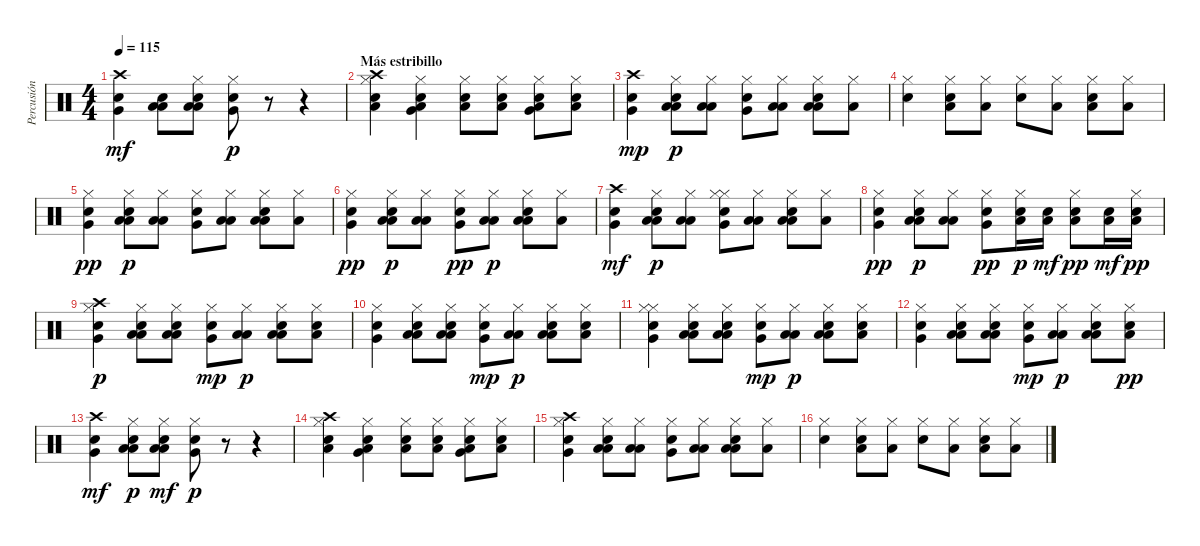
\track ("Percusión" "Percusión") {instrument percussion}
\staff {score}
\articulation defaults
\ts (4 4)
\tempo 115
\clef neutral
\ks c
("Snare (hit) 2" "Very Low Tom (hit)" "Crash high (hit)").4{dy mf} ("Low Floor Tom (hit)" "Low Floor Tom (hit)" "Snare (hit) 2").8 ("Low Floor Tom (hit)" "Low Floor Tom (hit)" "Hi-Hat (closed)" "Snare (hit) 2").8 ("Snare (hit) 2" "Very Low Tom (hit)" "Hi-Hat (closed)").8{dy p} r.8 r.4 |
\section ("" "Más estribillo")
("Snare (hit) 2" "Low Floor Tom (hit)" "Crash high (hit)" "Hi-Hat (closed)").4 ("Snare (hit) 2" "Low Floor Tom (hit)" "Very Low Tom (hit)" "Hi-Hat (closed)").4 ("Snare (hit) 2" "Low Floor Tom (hit)" "Hi-Hat (closed)").8 ("Snare (hit) 2" "Low Floor Tom (hit)" "Hi-Hat (closed)").8 ("Snare (hit) 2" "Low Floor Tom (hit)" "Very Low Tom (hit)" "Hi-Hat (closed)").8 ("Snare (hit) 2" "Low Floor Tom (hit)" "Hi-Hat (closed)").8 |
("Snare (hit) 2" "Very Low Tom (hit)" "Crash high (hit)").4{dy mp} ("Low Floor Tom (hit)" "Low Floor Tom (hit)" "Snare (hit) 2" "Hi-Hat (closed)").8{dy p} ("Low Floor Tom (hit)" "Low Floor Tom (hit)" "Hi-Hat (closed)").8 ("Snare (hit) 2" "Very Low Tom (hit)" "Hi-Hat (closed)").8 ("Low Floor Tom (hit)" "Low Floor Tom (hit)" "Hi-Hat (closed)").8 ("Low Floor Tom (hit)" "Low Floor Tom (hit)" "Snare (hit) 2" "Hi-Hat (closed)").8 ("Low Floor Tom (hit)" "Hi-Hat (closed)").8 |
("Snare (hit) 2" "Hi-Hat (closed)").4 ("Low Floor Tom (hit)" "Snare (hit) 2" "Hi-Hat (closed)").8 ("Low Floor Tom (hit)" "Hi-Hat (closed)").8 ("Snare (hit) 2" "Hi-Hat (closed)").8 ("Low Floor Tom (hit)" "Hi-Hat (closed)").8 ("Low Floor Tom (hit)" "Snare (hit) 2" "Hi-Hat (closed)").8 ("Low Floor Tom (hit)" "Hi-Hat (closed)").8 |
("Snare (hit) 2" "Very Low Tom (hit)" "Hi-Hat (closed)").4{dy pp} ("Low Floor Tom (hit)" "Low Floor Tom (hit)" "Snare (hit) 2" "Hi-Hat (closed)").8{dy p} ("Low Floor Tom (hit)" "Low Floor Tom (hit)" "Hi-Hat (closed)").8 ("Snare (hit) 2" "Very Low Tom (hit)" "Hi-Hat (closed)").8 ("Low Floor Tom (hit)" "Low Floor Tom (hit)" "Hi-Hat (closed)").8 ("Low Floor Tom (hit)" "Low Floor Tom (hit)" "Snare (hit) 2" "Hi-Hat (closed)").8 ("Low Floor Tom (hit)" "Hi-Hat (closed)").8 |
("Snare (hit) 2" "Very Low Tom (hit)" "Hi-Hat (closed)").4{dy pp} ("Low Floor Tom (hit)" "Low Floor Tom (hit)" "Snare (hit) 2" "Hi-Hat (closed)").8{dy p} ("Low Floor Tom (hit)" "Low Floor Tom (hit)" "Hi-Hat (closed)").8 ("Snare (hit) 2" "Very Low Tom (hit)" "Hi-Hat (closed)").8{dy pp} ("Low Floor Tom (hit)" "Low Floor Tom (hit)" "Hi-Hat (closed)").8{dy p} ("Low Floor Tom (hit)" "Low Floor Tom (hit)" "Snare (hit) 2" "Hi-Hat (closed)").8 ("Low Floor Tom (hit)" "Hi-Hat (closed)").8 |
("Snare (hit) 2" "Very Low Tom (hit)" "Crash high (hit)").4{dy mf} ("Low Floor Tom (hit)" "Low Floor Tom (hit)" "Snare (hit) 2" "Hi-Hat (closed)").8{dy p} ("Low Floor Tom (hit)" "Low Floor Tom (hit)" "Hi-Hat (closed)").8 ("Snare (hit) 2" "Very Low Tom (hit)" "Hi-Hat (closed)" "Hi-Hat (closed)").8 ("Low Floor Tom (hit)" "Low Floor Tom (hit)" "Hi-Hat (closed)").8 ("Low Floor Tom (hit)" "Low Floor Tom (hit)" "Snare (hit) 2" "Hi-Hat (closed)").8 ("Low Floor Tom (hit)" "Hi-Hat (closed)").8 |
("Snare (hit) 2" "Very Low Tom (hit)" "Hi-Hat (closed)").4{dy pp} ("Low Floor Tom (hit)" "Low Floor Tom (hit)" "Snare (hit) 2" "Hi-Hat (closed)").8{dy p} ("Low Floor Tom (hit)" "Low Floor Tom (hit)" "Hi-Hat (closed)").8 ("Snare (hit) 2" "Very Low Tom (hit)" "Hi-Hat (closed)").8{dy pp} ("Snare (hit) 2" "Low Floor Tom (hit)" "Hi-Hat (closed)").16{dy p} ("Snare (hit) 2" "Low Floor Tom (hit)").16{dy mf} ("Snare (hit) 2" "Low Floor Tom (hit)" "Hi-Hat (closed)").8{dy pp} ("Snare (hit) 2" "Low Floor Tom (hit)").16{dy mf} ("Snare (hit) 2" "Low Floor Tom (hit)" "Hi-Hat (closed)").16{dy pp} |
("Snare (hit) 2" "Very Low Tom (hit)" "Crash high (hit)" "Hi-Hat (closed)").4{dy p} ("Low Floor Tom (hit)" "Low Floor Tom (hit)" "Snare (hit) 2" "Hi-Hat (closed)").8 ("Low Floor Tom (hit)" "Low Floor Tom (hit)" "Snare (hit) 2" "Hi-Hat (closed)").8 ("Snare (hit) 2" "Very Low Tom (hit)" "Hi-Hat (closed)").8{dy mp} ("Low Floor Tom (hit)" "Low Floor Tom (hit)" "Hi-Hat (closed)").8{dy p} ("Low Floor Tom (hit)" "Low Floor Tom (hit)" "Snare (hit) 2" "Hi-Hat (closed)").8 ("Low Floor Tom (hit)" "Snare (hit) 2" "Hi-Hat (closed)").8 |
("Snare (hit) 2" "Very Low Tom (hit)" "Hi-Hat (closed)").4 ("Low Floor Tom (hit)" "Low Floor Tom (hit)" "Snare (hit) 2" "Hi-Hat (closed)").8 ("Low Floor Tom (hit)" "Low Floor Tom (hit)" "Snare (hit) 2" "Hi-Hat (closed)").8 ("Snare (hit) 2" "Very Low Tom (hit)" "Hi-Hat (closed)").8{dy mp} ("Low Floor Tom (hit)" "Low Floor Tom (hit)" "Hi-Hat (closed)").8{dy p} ("Low Floor Tom (hit)" "Low Floor Tom (hit)" "Snare (hit) 2" "Hi-Hat (closed)").8 ("Low Floor Tom (hit)" "Snare (hit) 2" "Hi-Hat (closed)").8 |
("Snare (hit) 2" "Very Low Tom (hit)" "Hi-Hat (closed)" "Hi-Hat (closed)").4 ("Low Floor Tom (hit)" "Low Floor Tom (hit)" "Snare (hit) 2" "Hi-Hat (closed)").8 ("Low Floor Tom (hit)" "Low Floor Tom (hit)" "Hi-Hat (closed)" "Snare (hit) 2").8 ("Snare (hit) 2" "Very Low Tom (hit)" "Hi-Hat (closed)").8{dy mp} ("Low Floor Tom (hit)" "Low Floor Tom (hit)" "Hi-Hat (closed)").8{dy p} ("Low Floor Tom (hit)" "Low Floor Tom (hit)" "Snare (hit) 2" "Hi-Hat (closed)").8 ("Low Floor Tom (hit)" "Snare (hit) 2" "Hi-Hat (closed)").8 |
("Snare (hit) 2" "Very Low Tom (hit)" "Hi-Hat (closed)").4 ("Low Floor Tom (hit)" "Low Floor Tom (hit)" "Snare (hit) 2" "Hi-Hat (closed)").8 ("Low Floor Tom (hit)" "Low Floor Tom (hit)" "Hi-Hat (closed)" "Snare (hit) 2").8 ("Snare (hit) 2" "Very Low Tom (hit)" "Hi-Hat (closed)").8{dy mp} ("Low Floor Tom (hit)" "Low Floor Tom (hit)" "Hi-Hat (closed)").8{dy p} ("Low Floor Tom (hit)" "Low Floor Tom (hit)" "Snare (hit) 2" "Hi-Hat (closed)").8 ("Low Floor Tom (hit)" "Snare (hit) 2" "Hi-Hat (closed)").8{dy pp} |
("Snare (hit) 2" "Very Low Tom (hit)" "Crash high (hit)").4{dy mf} ("Low Floor Tom (hit)" "Low Floor Tom (hit)" "Snare (hit) 2" "Hi-Hat (closed)").8{dy p} ("Low Floor Tom (hit)" "Low Floor Tom (hit)" "Hi-Hat (closed)" "Snare (hit) 2").8{dy mf} ("Snare (hit) 2" "Very Low Tom (hit)" "Hi-Hat (closed)").8{dy p} r.8 r.4 |
("Snare (hit) 2" "Low Floor Tom (hit)" "Crash high (hit)" "Hi-Hat (closed)").4 ("Snare (hit) 2" "Low Floor Tom (hit)" "Very Low Tom (hit)" "Hi-Hat (closed)").4 ("Snare (hit) 2" "Low Floor Tom (hit)" "Hi-Hat (closed)").8 ("Snare (hit) 2" "Low Floor Tom (hit)" "Hi-Hat (closed)").8 ("Snare (hit) 2" "Low Floor Tom (hit)" "Very Low Tom (hit)" "Hi-Hat (closed)").8 ("Snare (hit) 2" "Low Floor Tom (hit)" "Hi-Hat (closed)").8 |
("Snare (hit) 2" "Very Low Tom (hit)" "Crash high (hit)" "Hi-Hat (closed)").4 ("Low Floor Tom (hit)" "Low Floor Tom (hit)" "Snare (hit) 2" "Hi-Hat (closed)").8 ("Low Floor Tom (hit)" "Low Floor Tom (hit)" "Hi-Hat (closed)").8 ("Snare (hit) 2" "Very Low Tom (hit)" "Hi-Hat (closed)").8 ("Low Floor Tom (hit)" "Low Floor Tom (hit)" "Hi-Hat (closed)").8 ("Low Floor Tom (hit)" "Low Floor Tom (hit)" "Snare (hit) 2" "Hi-Hat (closed)").8 ("Low Floor Tom (hit)" "Hi-Hat (closed)").8 |
("Snare (hit) 2" "Hi-Hat (closed)").4 ("Low Floor Tom (hit)" "Snare (hit) 2" "Hi-Hat (closed)").8 ("Low Floor Tom (hit)" "Hi-Hat (closed)").8 ("Snare (hit) 2" "Hi-Hat (closed)").8 ("Low Floor Tom (hit)" "Hi-Hat (closed)").8 ("Low Floor Tom (hit)" "Snare (hit) 2" "Hi-Hat (closed)").8 ("Low Floor Tom (hit)" "Hi-Hat (closed)").8
